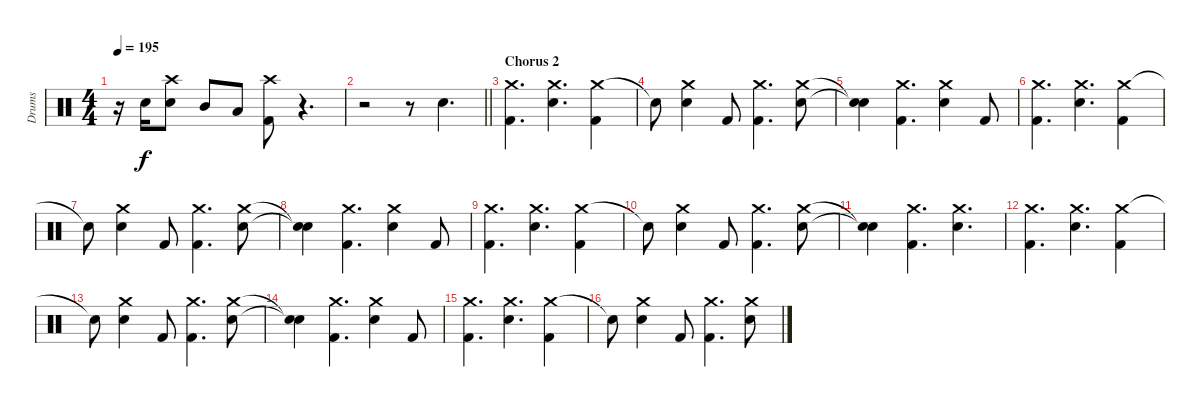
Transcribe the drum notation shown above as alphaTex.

\track ("Drums" "Drums") {instrument percussion}
\staff {score}
\articulation defaults
\ts (4 4)
\tempo 195
\clef neutral
\ks c
r.16{dy f} "Electric Snare (hit)".16 ("Crash high (hit)" "Electric Snare (hit)").8 "Mid Tom (hit)".8 "Low Tom (hit)".8 ("Crash high (hit)" "Kick (hit) 2").8 r.4{d} |
\barLineRight lightlight
r.2 r.8 "Electric Snare (hit)".4{d} |
\section ("" "Chorus 2")
("Crash medium (hit)" "Kick (hit) 2").4{d} ("Crash medium (hit)" "Electric Snare (hit)").4{d} ("Crash medium (hit)" "Kick (hit) 2").4 |
"Snare (hit)"{t}.8 ("Crash medium (hit)" "Electric Snare (hit)").4 "Kick (hit) 2".8 ("Crash medium (hit)" "Kick (hit) 2").4{d} ("Crash medium (hit)" "Electric Snare (hit)").8 |
("Snare (hit)"{t} "Snare (hit)"{t}).4 ("Crash medium (hit)" "Kick (hit) 2").4{d} ("Crash medium (hit)" "Electric Snare (hit)").4 "Kick (hit) 2".8 |
("Crash medium (hit)" "Kick (hit) 2").4{d} ("Crash medium (hit)" "Electric Snare (hit)").4{d} ("Crash medium (hit)" "Kick (hit) 2").4 |
"Snare (hit)"{t}.8 ("Crash medium (hit)" "Electric Snare (hit)").4 "Kick (hit) 2".8 ("Crash medium (hit)" "Kick (hit) 2").4{d} ("Crash medium (hit)" "Electric Snare (hit)").8 |
("Snare (hit)"{t} "Snare (hit)"{t}).4 ("Crash medium (hit)" "Kick (hit) 2").4{d} ("Crash medium (hit)" "Electric Snare (hit)").4 "Kick (hit) 2".8 |
("Crash medium (hit)" "Kick (hit) 2").4{d} ("Crash medium (hit)" "Electric Snare (hit)").4{d} ("Crash medium (hit)" "Kick (hit) 2").4 |
"Snare (hit)"{t}.8 ("Crash medium (hit)" "Electric Snare (hit)").4 "Kick (hit) 2".8 ("Crash medium (hit)" "Kick (hit) 2").4{d} ("Crash medium (hit)" "Electric Snare (hit)").8 |
("Snare (hit)"{t} "Snare (hit)"{t}).4 ("Crash medium (hit)" "Kick (hit) 2").4{d} ("Crash medium (hit)" "Electric Snare (hit)").4{d} |
("Crash medium (hit)" "Kick (hit) 2").4{d} ("Crash medium (hit)" "Electric Snare (hit)").4{d} ("Crash medium (hit)" "Kick (hit) 2").4 |
"Snare (hit)"{t}.8 ("Crash medium (hit)" "Electric Snare (hit)").4 "Kick (hit) 2".8 ("Crash medium (hit)" "Kick (hit) 2").4{d} ("Crash medium (hit)" "Electric Snare (hit)").8 |
("Snare (hit)"{t} "Snare (hit)"{t}).4 ("Crash medium (hit)" "Kick (hit) 2").4{d} ("Crash medium (hit)" "Electric Snare (hit)").4 "Kick (hit) 2".8 |
("Crash medium (hit)" "Kick (hit) 2").4{d} ("Crash medium (hit)" "Electric Snare (hit)").4{d} ("Crash medium (hit)" "Kick (hit) 2").4 |
"Snare (hit)"{t}.8 ("Crash medium (hit)" "Electric Snare (hit)").4 "Kick (hit) 2".8 ("Crash medium (hit)" "Kick (hit) 2").4{d} ("Crash medium (hit)" "Electric Snare (hit)").8
